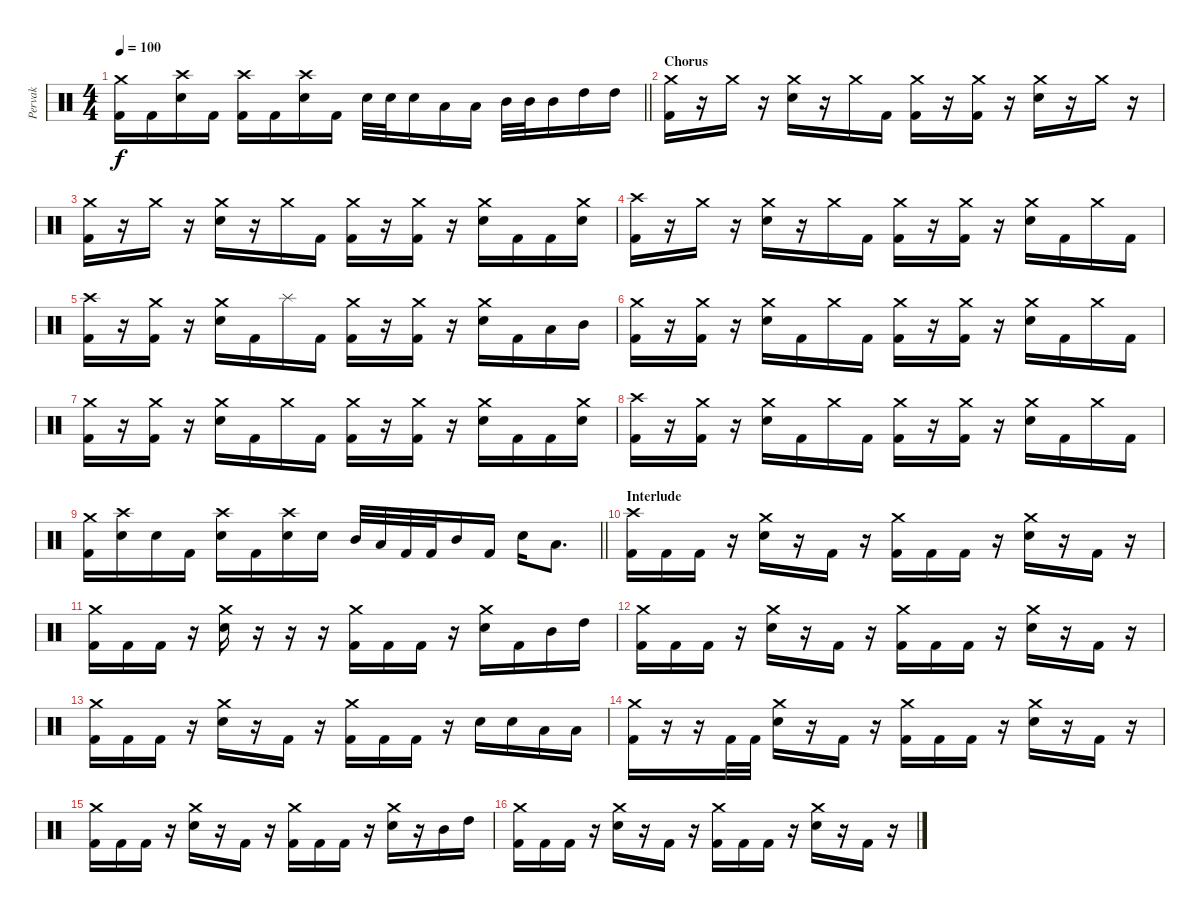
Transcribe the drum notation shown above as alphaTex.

\track ("Pervak" "Pervak") {instrument percussion}
\staff {score}
\articulation defaults
\ts (4 4)
\tempo 100
\clef neutral
\barLineRight lightlight
\ks c
("Crash medium (hit)" "Kick (hit) 2").16{dy f} "Kick (hit) 2".16 ("Crash high (hit)" "Electric Snare (hit)").16 "Kick (hit) 2".16 ("Crash high (hit)" "Kick (hit) 2").16 "Kick (hit) 2".16 ("Crash high (hit)" "Electric Snare (hit)").16 "Kick (hit) 2".16 "Electric Snare (hit)".32 "Electric Snare (hit)".32 "Electric Snare (hit)".16 "Low Tom (hit)".16 "Low Tom (hit)".16 "Mid Tom (hit)".32 "Mid Tom (hit)".32 "Mid Tom (hit)".16 "High Tom (hit)".16 "High Tom (hit)".16 |
\section ("" "Chorus")
("Crash medium (hit)" "Kick (hit) 2").16{volume 11} r.16 "Crash medium (hit)".16 r.16 ("Crash medium (hit)" "Electric Snare (hit)").16 r.16 "Crash medium (hit)".16 "Kick (hit) 2".16 ("Crash medium (hit)" "Kick (hit) 2").16 r.16 ("Crash medium (hit)" "Kick (hit) 2").16 r.16 ("Crash medium (hit)" "Electric Snare (hit)").16 r.16 "Crash medium (hit)".16 r.16 |
("Crash medium (hit)" "Kick (hit) 2").16 r.16 "Crash medium (hit)".16 r.16 ("Crash medium (hit)" "Electric Snare (hit)").16 r.16 "Crash medium (hit)".16 "Kick (hit) 2".16 ("Crash medium (hit)" "Kick (hit) 2").16 r.16 ("Crash medium (hit)" "Kick (hit) 2").16 r.16 ("Crash medium (hit)" "Electric Snare (hit)").16 "Kick (hit) 2".16 "Kick (hit) 2".16 ("Crash medium (hit)" "Electric Snare (hit)").16 |
("Crash high (hit)" "Kick (hit) 2").16 r.16 "Crash medium (hit)".16 r.16 ("Crash medium (hit)" "Electric Snare (hit)").16 r.16 "Crash medium (hit)".16 "Kick (hit) 2".16 ("Crash medium (hit)" "Kick (hit) 2").16 r.16 ("Crash medium (hit)" "Kick (hit) 2").16 r.16 ("Crash medium (hit)" "Electric Snare (hit)").16 "Kick (hit) 2".16 "Crash medium (hit)".16 "Kick (hit) 2".16 |
("Crash high (hit)" "Kick (hit) 2").16 r.16 ("Crash medium (hit)" "Kick (hit) 2").16 r.16 ("Crash medium (hit)" "Electric Snare (hit)").16 "Kick (hit) 2".16 "Splash (hit)".16 "Kick (hit) 2".16 ("Crash medium (hit)" "Kick (hit) 2").16 r.16 ("Crash medium (hit)" "Kick (hit) 2").16 r.16 ("Crash medium (hit)" "Electric Snare (hit)").16 "Kick (hit) 2".16 "Low Tom (hit)".16 "Mid Tom (hit)".16 |
("Crash medium (hit)" "Kick (hit) 2").16 r.16 ("Crash medium (hit)" "Kick (hit) 2").16 r.16 ("Crash medium (hit)" "Electric Snare (hit)").16 "Kick (hit) 2".16 "Crash medium (hit)".16 "Kick (hit) 2".16 ("Crash medium (hit)" "Kick (hit) 2").16 r.16 ("Crash medium (hit)" "Kick (hit) 2").16 r.16 ("Crash medium (hit)" "Electric Snare (hit)").16 "Kick (hit) 2".16 "Crash medium (hit)".16 "Kick (hit) 2".16 |
("Crash medium (hit)" "Kick (hit) 2").16 r.16 ("Crash medium (hit)" "Kick (hit) 2").16 r.16 ("Crash medium (hit)" "Electric Snare (hit)").16 "Kick (hit) 2".16 "Crash medium (hit)".16 "Kick (hit) 2".16 ("Crash medium (hit)" "Kick (hit) 2").16 r.16 ("Crash medium (hit)" "Kick (hit) 2").16 r.16 ("Crash medium (hit)" "Electric Snare (hit)").16 "Kick (hit) 2".16 "Kick (hit) 2".16 ("Crash medium (hit)" "Electric Snare (hit)").16 |
("Crash high (hit)" "Kick (hit) 2").16 r.16 ("Crash medium (hit)" "Kick (hit) 2").16 r.16 ("Crash medium (hit)" "Electric Snare (hit)").16 "Kick (hit) 2".16 "Crash medium (hit)".16 "Kick (hit) 2".16 ("Crash medium (hit)" "Kick (hit) 2").16 r.16 ("Crash medium (hit)" "Kick (hit) 2").16 r.16 ("Crash medium (hit)" "Electric Snare (hit)").16 "Kick (hit) 2".16 "Crash medium (hit)".16 "Kick (hit) 2".16 |
\barLineRight lightlight
("Crash medium (hit)" "Kick (hit) 2").16 ("Crash high (hit)" "Electric Snare (hit)").16 "Electric Snare (hit)".16 "Kick (hit) 2".16 ("Crash high (hit)" "Electric Snare (hit)").16 "Kick (hit) 2".16 ("Crash high (hit)" "Electric Snare (hit)").16 "Electric Snare (hit)".16 "Mid Tom (hit)".32 "Low Tom (hit)".32 "Kick (hit) 2".32 "Kick (hit) 2".32 "Mid Tom (hit)".16 "Kick (hit) 2".16 "Electric Snare (hit)".16 "Low Tom (hit)".8{d} |
\section ("" "Interlude")
("Crash high (hit)" "Kick (hit) 2").16{volume 13} "Kick (hit) 2".16 "Kick (hit) 2".16 r.16 ("Crash medium (hit)" "Electric Snare (hit)").16 r.16 "Kick (hit) 2".16 r.16 ("Crash medium (hit)" "Kick (hit) 2").16 "Kick (hit) 2".16 "Kick (hit) 2".16 r.16 ("Crash medium (hit)" "Electric Snare (hit)").16 r.16 "Kick (hit) 2".16 r.16 |
("Crash medium (hit)" "Kick (hit) 2").16 "Kick (hit) 2".16 "Kick (hit) 2".16 r.16 ("Crash medium (hit)" "Electric Snare (hit)").16 r.16 r.16 r.16 ("Crash medium (hit)" "Kick (hit) 2").16 "Kick (hit) 2".16 "Kick (hit) 2".16 r.16 ("Crash medium (hit)" "Electric Snare (hit)").16 "Kick (hit) 2".16 "Mid Tom (hit)".16 "High Tom (hit)".16 |
("Crash medium (hit)" "Kick (hit) 2").16 "Kick (hit) 2".16 "Kick (hit) 2".16 r.16 ("Crash medium (hit)" "Electric Snare (hit)").16 r.16 "Kick (hit) 2".16 r.16 ("Crash medium (hit)" "Kick (hit) 2").16 "Kick (hit) 2".16 "Kick (hit) 2".16 r.16 ("Crash medium (hit)" "Electric Snare (hit)").16 r.16 "Kick (hit) 2".16 r.16 |
("Crash medium (hit)" "Kick (hit) 2").16 "Kick (hit) 2".16 "Kick (hit) 2".16 r.16 ("Crash medium (hit)" "Electric Snare (hit)").16 r.16 "Kick (hit) 2".16 r.16 ("Crash medium (hit)" "Kick (hit) 2").16 "Kick (hit) 2".16 "Kick (hit) 2".16 r.16 "Electric Snare (hit)".16 "Electric Snare (hit)".16 "Low Tom (hit)".16 "Low Tom (hit)".16 |
("Crash medium (hit)" "Kick (hit) 2").16 r.16 r.16 "Kick (hit) 2".32 "Kick (hit) 2".32 ("Crash medium (hit)" "Electric Snare (hit)").16 r.16 "Kick (hit) 2".16 r.16 ("Crash medium (hit)" "Kick (hit) 2").16 "Kick (hit) 2".16 "Kick (hit) 2".16 r.16 ("Crash medium (hit)" "Electric Snare (hit)").16 r.16 "Kick (hit) 2".16 r.16 |
("Crash medium (hit)" "Kick (hit) 2").16 "Kick (hit) 2".16 "Kick (hit) 2".16 r.16 ("Crash medium (hit)" "Electric Snare (hit)").16 r.16 "Kick (hit) 2".16 r.16 ("Crash medium (hit)" "Kick (hit) 2").16 "Kick (hit) 2".16 "Kick (hit) 2".16 r.16 ("Crash medium (hit)" "Electric Snare (hit)").16 r.16 "Mid Tom (hit)".16 "High Tom (hit)".16 |
("Crash medium (hit)" "Kick (hit) 2").16 "Kick (hit) 2".16 "Kick (hit) 2".16 r.16 ("Crash medium (hit)" "Electric Snare (hit)").16 r.16 "Kick (hit) 2".16 r.16 ("Crash medium (hit)" "Kick (hit) 2").16 "Kick (hit) 2".16 "Kick (hit) 2".16 r.16 ("Crash medium (hit)" "Electric Snare (hit)").16 r.16 "Kick (hit) 2".16 r.16
